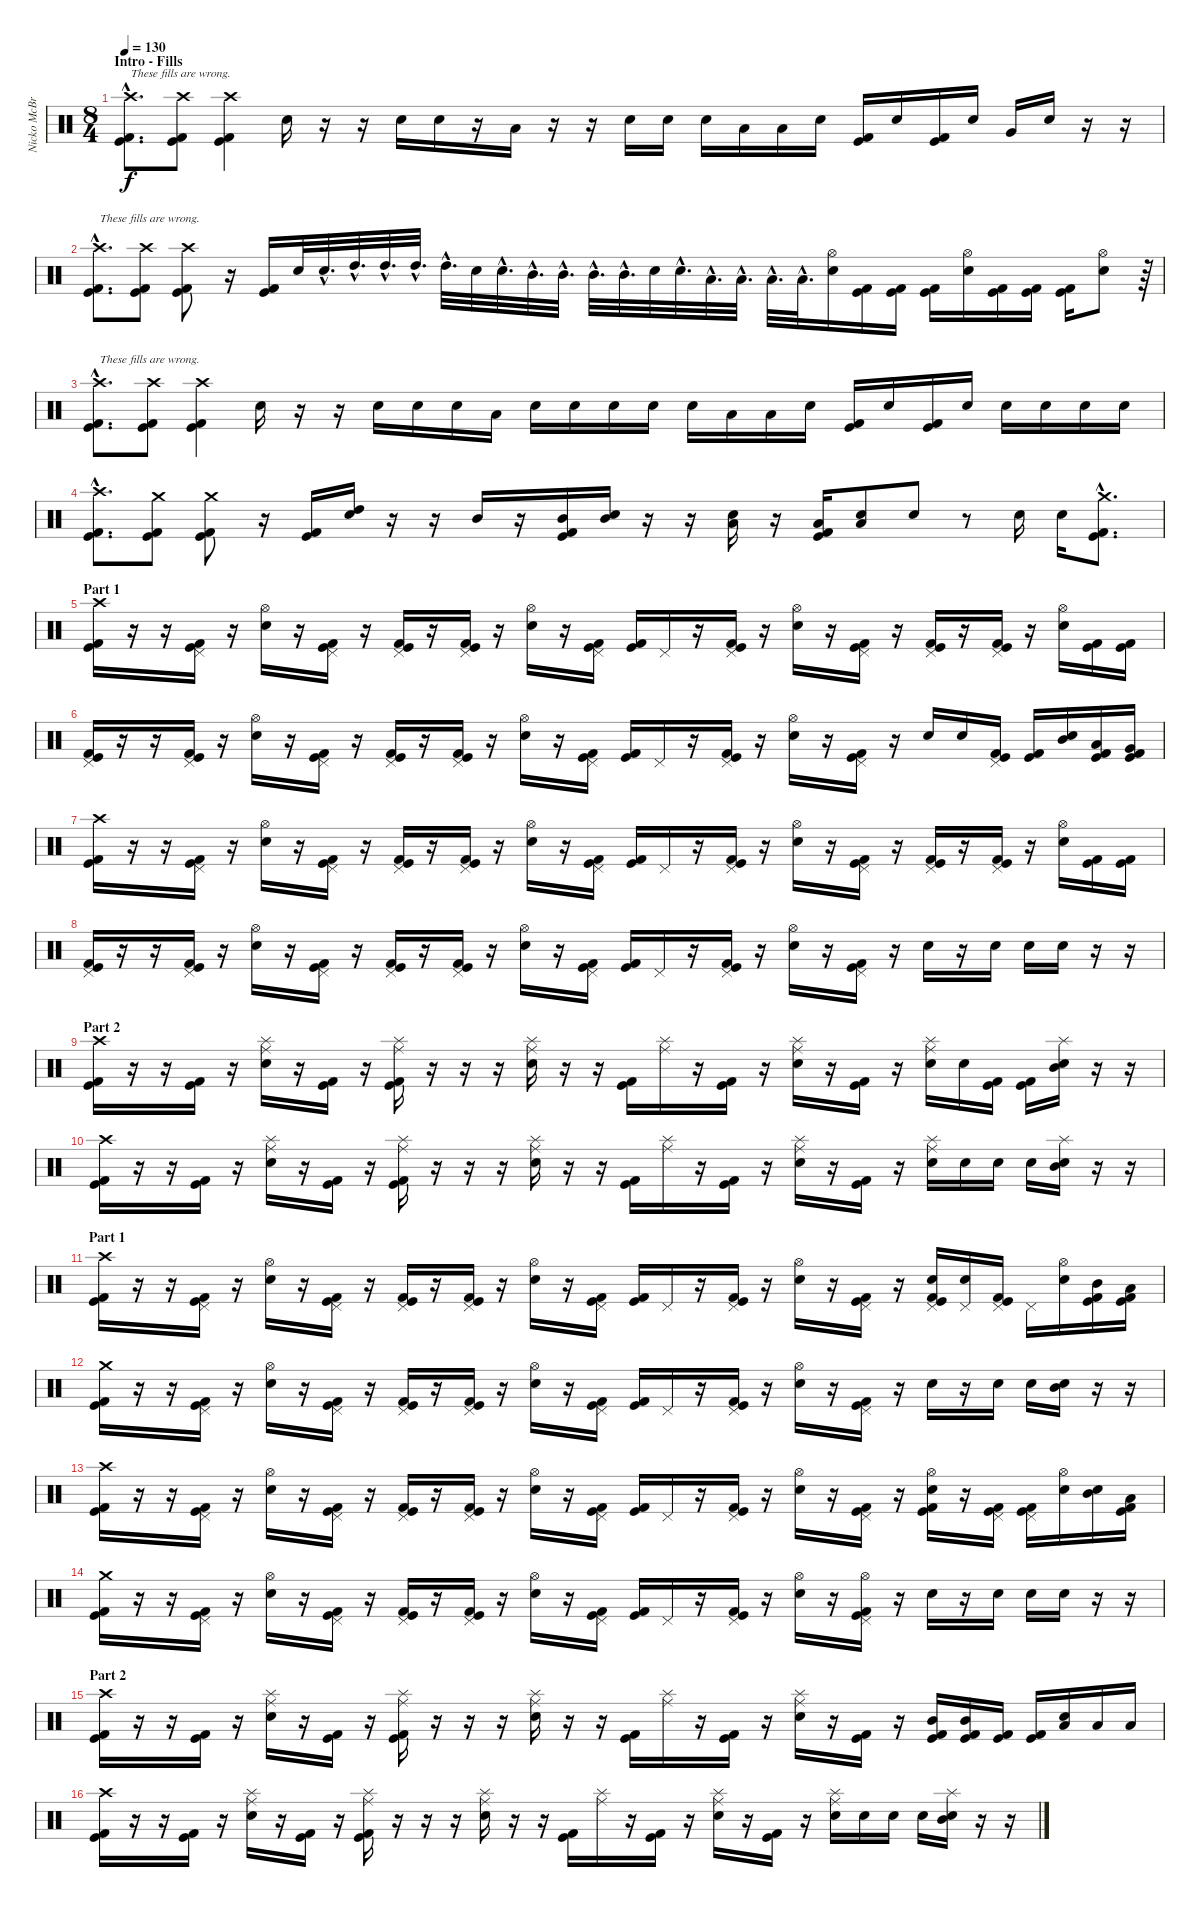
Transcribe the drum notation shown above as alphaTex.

\track ("Nicko McBrain" "Nicko McBr") {instrument percussion}
\staff {score}
\articulation defaults
\ts (8 4)
\section ("" "Intro - Fills")
\tempo 130
\clef neutral
\ks c
("Crash high (hit)"{hac} "Kick (hit)"{hac} "Kick (hit) 2"{hac}).8{d txt "These fills are wrong." dy f} ("Crash high (hit)" "Kick (hit)" "Kick (hit) 2").8 ("Crash high (hit)" "Kick (hit)" "Kick (hit) 2").4 "Snare (hit) 2".16 r.16 r.16 "Snare (hit) 2".16 "Snare (hit) 2".16 r.16 "Low Tom (hit)".16 r.16 r.16 "Snare (hit) 2".16 "Snare (hit) 2".16 "Snare (hit) 2".16 "Low Tom (hit)".16 "Low Tom (hit)".16 "Snare (hit) 2".16 ("Kick (hit)" "Kick (hit) 2").16 "Snare (hit) 2".16 ("Kick (hit)" "Kick (hit) 2").16 "Snare (hit) 2".16 "Very Low Tom (hit)".16 "Snare (hit) 2".16 r.16 r.16 |
("Crash high (hit)"{hac} "Kick (hit)"{hac} "Kick (hit) 2"{hac}).8{d txt "These fills are wrong."} ("Crash high (hit)" "Kick (hit)" "Kick (hit) 2").8 ("Crash high (hit)" "Kick (hit)" "Kick (hit) 2").8 r.16 ("Kick (hit) 2" "Kick (hit)").16 "Snare (hit) 2".32 "Snare (hit) 2"{hac}.32{d} "High Tom (hit)"{hac}.32{d} "High Tom (hit)"{hac}.32{d} "High Tom (hit)"{hac}.32{d} "High Tom (hit)"{hac}.32{d} "Snare (hit) 2".32 "Snare (hit) 2"{hac}.32{d} "Mid Tom (hit)"{hac}.32{d} "Mid Tom (hit)"{hac}.32{d} "Mid Tom (hit)"{hac}.32{d} "Mid Tom (hit)"{hac}.32{d} "Snare (hit) 2".32 "Snare (hit) 2"{hac}.32{d} "Low Tom (hit)"{hac}.32{d} "Low Tom (hit)"{hac}.32{d} "Low Tom (hit)"{hac}.32{d} "Low Tom (hit)"{hac}.32{d} ("Hi-Hat (open)" "Snare (hit) 2").16 ("Kick (hit)" "Kick (hit) 2").16 ("Kick (hit)" "Kick (hit) 2").16 ("Kick (hit)" "Kick (hit) 2").16 ("Hi-Hat (open)" "Snare (hit) 2").16 ("Kick (hit)" "Kick (hit) 2").16 ("Kick (hit)" "Kick (hit) 2").16 ("Kick (hit)" "Kick (hit) 2").16 ("Hi-Hat (open)" "Snare (hit) 2").8 r.64 |
("Crash high (hit)"{hac} "Kick (hit)"{hac} "Kick (hit) 2"{hac}).8{d txt "These fills are wrong."} ("Crash high (hit)" "Kick (hit)" "Kick (hit) 2").8 ("Crash high (hit)" "Kick (hit)" "Kick (hit) 2").4 "Snare (hit) 2".16 r.16 r.16 "Snare (hit) 2".16 "Snare (hit) 2".16 "Snare (hit) 2".16 "Low Tom (hit)".16 "Snare (hit) 2".16 "Snare (hit) 2".16 "Snare (hit) 2".16 "Snare (hit) 2".16 "Snare (hit) 2".16 "Low Tom (hit)".16 "Low Tom (hit)".16 "Snare (hit) 2".16 ("Kick (hit)" "Kick (hit) 2").16 "Snare (hit) 2".16 ("Kick (hit)" "Kick (hit) 2").16 "Snare (hit) 2".16 "Snare (hit) 2".16 "Snare (hit) 2".16 "Snare (hit) 2".16 "Snare (hit) 2".16 |
("Crash high (hit)"{hac} "Kick (hit)"{hac} "Kick (hit) 2"{hac}).8{d} ("Crash medium (hit)" "Kick (hit)" "Kick (hit) 2").8 ("Crash medium (hit)" "Kick (hit)" "Kick (hit) 2").8 r.16 ("Kick (hit) 2" "Kick (hit)").16 ("High Tom (hit)" "Snare (hit) 2").16 r.16 r.16 "Mid Tom (hit)".16 r.16 ("Mid Tom (hit)" "Kick (hit)" "Kick (hit) 2").16 ("Mid Tom (hit)" "Snare (hit) 2").16 r.16 r.16 ("Low Tom (hit)" "Snare (hit) 2").16 r.16 ("Low Tom (hit)" "Kick (hit)" "Kick (hit) 2").16 ("Low Tom (hit)" "Snare (hit) 2").8 "Snare (hit) 2".8 r.8 "Snare (hit) 2".16 "Snare (hit) 2".16 ("Crash medium (hit)"{hac} "Kick (hit)"{hac} "Kick (hit) 2"{hac}).8{d} |
\section ("" "Part 1")
("Crash high (hit)" "Kick (hit)" "Kick (hit) 2").16 r.16 r.16 ("Pedal Hi-Hat (hit)" "Kick (hit)" "Kick (hit) 2").16 r.16 ("Hi-Hat (open)" "Snare (hit) 2").16 r.16 ("Pedal Hi-Hat (hit)" "Kick (hit)" "Kick (hit) 2").16 r.16 ("Pedal Hi-Hat (hit)" "Kick (hit)" "Kick (hit) 2").16 r.16 ("Pedal Hi-Hat (hit)" "Kick (hit)" "Kick (hit) 2").16 r.16 ("Hi-Hat (open)" "Snare (hit) 2").16 r.16 ("Pedal Hi-Hat (hit)" "Kick (hit)" "Kick (hit) 2").16 ("Kick (hit)" "Kick (hit) 2").16 "Pedal Hi-Hat (hit)".16 r.16 ("Pedal Hi-Hat (hit)" "Kick (hit)" "Kick (hit) 2").16 r.16 ("Hi-Hat (open)" "Snare (hit) 2").16 r.16 ("Pedal Hi-Hat (hit)" "Kick (hit)" "Kick (hit) 2").16 r.16 ("Pedal Hi-Hat (hit)" "Kick (hit)" "Kick (hit) 2").16 r.16 ("Pedal Hi-Hat (hit)" "Kick (hit)" "Kick (hit) 2").16 r.16 ("Hi-Hat (open)" "Snare (hit) 2").16 ("Kick (hit)" "Kick (hit) 2").16 ("Kick (hit)" "Kick (hit) 2").16 |
("Pedal Hi-Hat (hit)" "Kick (hit)" "Kick (hit) 2").16 r.16 r.16 ("Pedal Hi-Hat (hit)" "Kick (hit)" "Kick (hit) 2").16 r.16 ("Hi-Hat (open)" "Snare (hit) 2").16 r.16 ("Pedal Hi-Hat (hit)" "Kick (hit)" "Kick (hit) 2").16 r.16 ("Pedal Hi-Hat (hit)" "Kick (hit)" "Kick (hit) 2").16 r.16 ("Pedal Hi-Hat (hit)" "Kick (hit)" "Kick (hit) 2").16 r.16 ("Hi-Hat (open)" "Snare (hit) 2").16 r.16 ("Pedal Hi-Hat (hit)" "Kick (hit)" "Kick (hit) 2").16 ("Kick (hit)" "Kick (hit) 2").16 "Pedal Hi-Hat (hit)".16 r.16 ("Pedal Hi-Hat (hit)" "Kick (hit)" "Kick (hit) 2").16 r.16 ("Hi-Hat (open)" "Snare (hit) 2").16 r.16 ("Pedal Hi-Hat (hit)" "Kick (hit)" "Kick (hit) 2").16 r.16 "Snare (hit) 2".16 "Snare (hit) 2".16 ("Pedal Hi-Hat (hit)" "Kick (hit)" "Kick (hit) 2").16 ("Kick (hit)" "Kick (hit) 2").16 ("Mid Tom (hit)" "Snare (hit) 2").16 ("Low Tom (hit)" "Kick (hit)" "Kick (hit) 2").16 ("Very Low Tom (hit)" "Kick (hit)" "Kick (hit) 2").16 |
("Crash high (hit)" "Kick (hit)" "Kick (hit) 2").16 r.16 r.16 ("Pedal Hi-Hat (hit)" "Kick (hit)" "Kick (hit) 2").16 r.16 ("Hi-Hat (open)" "Snare (hit) 2").16 r.16 ("Pedal Hi-Hat (hit)" "Kick (hit)" "Kick (hit) 2").16 r.16 ("Pedal Hi-Hat (hit)" "Kick (hit)" "Kick (hit) 2").16 r.16 ("Pedal Hi-Hat (hit)" "Kick (hit)" "Kick (hit) 2").16 r.16 ("Hi-Hat (open)" "Snare (hit) 2").16 r.16 ("Pedal Hi-Hat (hit)" "Kick (hit)" "Kick (hit) 2").16 ("Kick (hit)" "Kick (hit) 2").16 "Pedal Hi-Hat (hit)".16 r.16 ("Pedal Hi-Hat (hit)" "Kick (hit)" "Kick (hit) 2").16 r.16 ("Hi-Hat (open)" "Snare (hit) 2").16 r.16 ("Pedal Hi-Hat (hit)" "Kick (hit)" "Kick (hit) 2").16 r.16 ("Pedal Hi-Hat (hit)" "Kick (hit)" "Kick (hit) 2").16 r.16 ("Pedal Hi-Hat (hit)" "Kick (hit)" "Kick (hit) 2").16 r.16 ("Hi-Hat (open)" "Snare (hit) 2").16 ("Kick (hit)" "Kick (hit) 2").16 ("Kick (hit)" "Kick (hit) 2").16 |
("Pedal Hi-Hat (hit)" "Kick (hit)" "Kick (hit) 2").16 r.16 r.16 ("Pedal Hi-Hat (hit)" "Kick (hit)" "Kick (hit) 2").16 r.16 ("Hi-Hat (open)" "Snare (hit) 2").16 r.16 ("Pedal Hi-Hat (hit)" "Kick (hit)" "Kick (hit) 2").16 r.16 ("Pedal Hi-Hat (hit)" "Kick (hit)" "Kick (hit) 2").16 r.16 ("Pedal Hi-Hat (hit)" "Kick (hit)" "Kick (hit) 2").16 r.16 ("Hi-Hat (open)" "Snare (hit) 2").16 r.16 ("Pedal Hi-Hat (hit)" "Kick (hit)" "Kick (hit) 2").16 ("Kick (hit)" "Kick (hit) 2").16 "Pedal Hi-Hat (hit)".16 r.16 ("Pedal Hi-Hat (hit)" "Kick (hit)" "Kick (hit) 2").16 r.16 ("Hi-Hat (open)" "Snare (hit) 2").16 r.16 ("Pedal Hi-Hat (hit)" "Kick (hit)" "Kick (hit) 2").16 r.16 "Snare (hit) 2".16 r.16 "Snare (hit) 2".16 "Snare (hit) 2".16 "Snare (hit) 2".16 r.16 r.16 |
\section ("" "Part 2")
("Crash high (hit)" "Kick (hit)" "Kick (hit) 2").16 r.16 r.16 ("Kick (hit) 2" "Kick (hit)").16 r.16 ("Ride (middle)" "Splash (hit)" "Snare (hit) 2").16 r.16 ("Kick (hit)" "Kick (hit) 2").16 r.16 ("Ride (middle)" "Splash (hit)" "Kick (hit)" "Kick (hit) 2").16 r.16 r.16 r.16 ("Ride (middle)" "Splash (hit)" "Snare (hit) 2").16 r.16 r.16 ("Kick (hit)" "Kick (hit) 2").16 ("Ride (middle)" "Splash (hit)").16 r.16 ("Kick (hit)" "Kick (hit) 2").16 r.16 ("Ride (middle)" "Splash (hit)" "Snare (hit) 2").16 r.16 ("Kick (hit)" "Kick (hit) 2").16 r.16 ("Ride (middle)" "Splash (hit)" "Snare (hit) 2").16 "Snare (hit) 2".16 ("Kick (hit)" "Kick (hit) 2").16 ("Kick (hit)" "Kick (hit) 2").16 ("Mid Tom (hit)" "Splash (hit)" "Snare (hit) 2").16 r.16 r.16 |
("Crash high (hit)" "Kick (hit)" "Kick (hit) 2").16 r.16 r.16 ("Kick (hit) 2" "Kick (hit)").16 r.16 ("Ride (middle)" "Splash (hit)" "Snare (hit) 2").16 r.16 ("Kick (hit)" "Kick (hit) 2").16 r.16 ("Ride (middle)" "Splash (hit)" "Kick (hit)" "Kick (hit) 2").16 r.16 r.16 r.16 ("Ride (middle)" "Splash (hit)" "Snare (hit) 2").16 r.16 r.16 ("Kick (hit)" "Kick (hit) 2").16 ("Ride (middle)" "Splash (hit)").16 r.16 ("Kick (hit)" "Kick (hit) 2").16 r.16 ("Ride (middle)" "Splash (hit)" "Snare (hit) 2").16 r.16 ("Kick (hit)" "Kick (hit) 2").16 r.16 ("Ride (middle)" "Splash (hit)" "Snare (hit) 2").16 "Snare (hit) 2".16 "Snare (hit) 2".16 "Snare (hit) 2".16 ("Mid Tom (hit)" "Splash (hit)" "Snare (hit) 2").16 r.16 r.16 |
\section ("" "Part 1")
("Crash high (hit)" "Kick (hit)" "Kick (hit) 2").16 r.16 r.16 ("Pedal Hi-Hat (hit)" "Kick (hit)" "Kick (hit) 2").16 r.16 ("Hi-Hat (open)" "Snare (hit) 2").16 r.16 ("Pedal Hi-Hat (hit)" "Kick (hit)" "Kick (hit) 2").16 r.16 ("Pedal Hi-Hat (hit)" "Kick (hit)" "Kick (hit) 2").16 r.16 ("Pedal Hi-Hat (hit)" "Kick (hit)" "Kick (hit) 2").16 r.16 ("Hi-Hat (open)" "Snare (hit) 2").16 r.16 ("Pedal Hi-Hat (hit)" "Kick (hit)" "Kick (hit) 2").16 ("Kick (hit)" "Kick (hit) 2").16 "Pedal Hi-Hat (hit)".16 r.16 ("Pedal Hi-Hat (hit)" "Kick (hit)" "Kick (hit) 2").16 r.16 ("Hi-Hat (open)" "Snare (hit) 2").16 r.16 ("Pedal Hi-Hat (hit)" "Kick (hit)" "Kick (hit) 2").16 r.16 ("Pedal Hi-Hat (hit)" "Snare (hit) 2" "Kick (hit)" "Kick (hit) 2").16 ("Pedal Hi-Hat (hit)" "Snare (hit) 2").16 ("Pedal Hi-Hat (hit)" "Kick (hit)" "Kick (hit) 2").16 "Pedal Hi-Hat (hit)".16 ("Hi-Hat (open)" "Snare (hit) 2").16 ("Mid Tom (hit)" "Kick (hit)" "Kick (hit) 2").16 ("Low Tom (hit)" "Kick (hit)" "Kick (hit) 2").16 |
("Crash medium (hit)" "Kick (hit)" "Kick (hit) 2").16 r.16 r.16 ("Pedal Hi-Hat (hit)" "Kick (hit)" "Kick (hit) 2").16 r.16 ("Hi-Hat (open)" "Snare (hit) 2").16 r.16 ("Pedal Hi-Hat (hit)" "Kick (hit)" "Kick (hit) 2").16 r.16 ("Pedal Hi-Hat (hit)" "Kick (hit)" "Kick (hit) 2").16 r.16 ("Pedal Hi-Hat (hit)" "Kick (hit)" "Kick (hit) 2").16 r.16 ("Hi-Hat (open)" "Snare (hit) 2").16 r.16 ("Pedal Hi-Hat (hit)" "Kick (hit)" "Kick (hit) 2").16 ("Kick (hit)" "Kick (hit) 2").16 "Pedal Hi-Hat (hit)".16 r.16 ("Pedal Hi-Hat (hit)" "Kick (hit)" "Kick (hit) 2").16 r.16 ("Hi-Hat (open)" "Snare (hit) 2").16 r.16 ("Pedal Hi-Hat (hit)" "Kick (hit)" "Kick (hit) 2").16 r.16 "Snare (hit) 2".16 r.16 "Snare (hit) 2".16 "Snare (hit) 2".16 ("Mid Tom (hit)" "Snare (hit) 2").16 r.16 r.16 |
("Crash high (hit)" "Kick (hit)" "Kick (hit) 2").16 r.16 r.16 ("Pedal Hi-Hat (hit)" "Kick (hit)" "Kick (hit) 2").16 r.16 ("Hi-Hat (open)" "Snare (hit) 2").16 r.16 ("Pedal Hi-Hat (hit)" "Kick (hit)" "Kick (hit) 2").16 r.16 ("Pedal Hi-Hat (hit)" "Kick (hit)" "Kick (hit) 2").16 r.16 ("Pedal Hi-Hat (hit)" "Kick (hit)" "Kick (hit) 2").16 r.16 ("Hi-Hat (open)" "Snare (hit) 2").16 r.16 ("Pedal Hi-Hat (hit)" "Kick (hit)" "Kick (hit) 2").16 ("Kick (hit)" "Kick (hit) 2").16 "Pedal Hi-Hat (hit)".16 r.16 ("Pedal Hi-Hat (hit)" "Kick (hit)" "Kick (hit) 2").16 r.16 ("Hi-Hat (open)" "Snare (hit) 2").16 r.16 ("Pedal Hi-Hat (hit)" "Kick (hit)" "Kick (hit) 2").16 r.16 ("Hi-Hat (open)" "Snare (hit) 2" "Kick (hit)" "Kick (hit) 2").16 r.16 ("Pedal Hi-Hat (hit)" "Kick (hit)" "Kick (hit) 2").16 ("Pedal Hi-Hat (hit)" "Kick (hit) 2" "Kick (hit)").16 ("Hi-Hat (open)" "Snare (hit) 2").16 ("Mid Tom (hit)" "Snare (hit) 2").16 ("Low Tom (hit)" "Kick (hit)" "Kick (hit) 2").16 |
("Crash medium (hit)" "Kick (hit)" "Kick (hit) 2").16 r.16 r.16 ("Pedal Hi-Hat (hit)" "Kick (hit)" "Kick (hit) 2").16 r.16 ("Hi-Hat (open)" "Snare (hit) 2").16 r.16 ("Pedal Hi-Hat (hit)" "Kick (hit)" "Kick (hit) 2").16 r.16 ("Pedal Hi-Hat (hit)" "Kick (hit)" "Kick (hit) 2").16 r.16 ("Pedal Hi-Hat (hit)" "Kick (hit)" "Kick (hit) 2").16 r.16 ("Hi-Hat (open)" "Snare (hit) 2").16 r.16 ("Pedal Hi-Hat (hit)" "Kick (hit)" "Kick (hit) 2").16 ("Kick (hit)" "Kick (hit) 2").16 "Pedal Hi-Hat (hit)".16 r.16 ("Pedal Hi-Hat (hit)" "Kick (hit)" "Kick (hit) 2").16 r.16 ("Hi-Hat (open)" "Snare (hit) 2").16 r.16 ("Hi-Hat (open)" "Pedal Hi-Hat (hit)" "Kick (hit)" "Kick (hit) 2").16 r.16 "Snare (hit) 2".16 r.16 "Snare (hit) 2".16 "Snare (hit) 2".16 "Snare (hit) 2".16 r.16 r.16 |
\section ("" "Part 2")
("Crash high (hit)" "Kick (hit)" "Kick (hit) 2").16 r.16 r.16 ("Kick (hit) 2" "Kick (hit)").16 r.16 ("Ride (middle)" "Splash (hit)" "Snare (hit) 2").16 r.16 ("Kick (hit)" "Kick (hit) 2").16 r.16 ("Ride (middle)" "Splash (hit)" "Kick (hit)" "Kick (hit) 2").16 r.16 r.16 r.16 ("Ride (middle)" "Splash (hit)" "Snare (hit) 2").16 r.16 r.16 ("Kick (hit)" "Kick (hit) 2").16 ("Ride (middle)" "Splash (hit)").16 r.16 ("Kick (hit)" "Kick (hit) 2").16 r.16 ("Ride (middle)" "Splash (hit)" "Snare (hit) 2").16 r.16 ("Kick (hit)" "Kick (hit) 2").16 r.16 ("Mid Tom (hit)" "Kick (hit)" "Kick (hit) 2").16 ("Mid Tom (hit)" "Kick (hit)" "Kick (hit) 2").16 ("Kick (hit)" "Kick (hit) 2").16 ("Kick (hit)" "Kick (hit) 2").16 ("Low Tom (hit)" "Snare (hit) 2").16 "Low Tom (hit)".16 "Low Tom (hit)".16 |
("Crash high (hit)" "Kick (hit)" "Kick (hit) 2").16 r.16 r.16 ("Kick (hit) 2" "Kick (hit)").16 r.16 ("Ride (middle)" "Splash (hit)" "Snare (hit) 2").16 r.16 ("Kick (hit)" "Kick (hit) 2").16 r.16 ("Ride (middle)" "Splash (hit)" "Kick (hit)" "Kick (hit) 2").16 r.16 r.16 r.16 ("Ride (middle)" "Splash (hit)" "Snare (hit) 2").16 r.16 r.16 ("Kick (hit)" "Kick (hit) 2").16 ("Ride (middle)" "Splash (hit)").16 r.16 ("Kick (hit)" "Kick (hit) 2").16 r.16 ("Ride (middle)" "Splash (hit)" "Snare (hit) 2").16 r.16 ("Kick (hit)" "Kick (hit) 2").16 r.16 ("Ride (middle)" "Splash (hit)" "Snare (hit) 2").16 "Snare (hit) 2".16 "Snare (hit) 2".16 "Snare (hit) 2".16 ("Mid Tom (hit)" "Splash (hit)" "Snare (hit) 2").16 r.16 r.16
